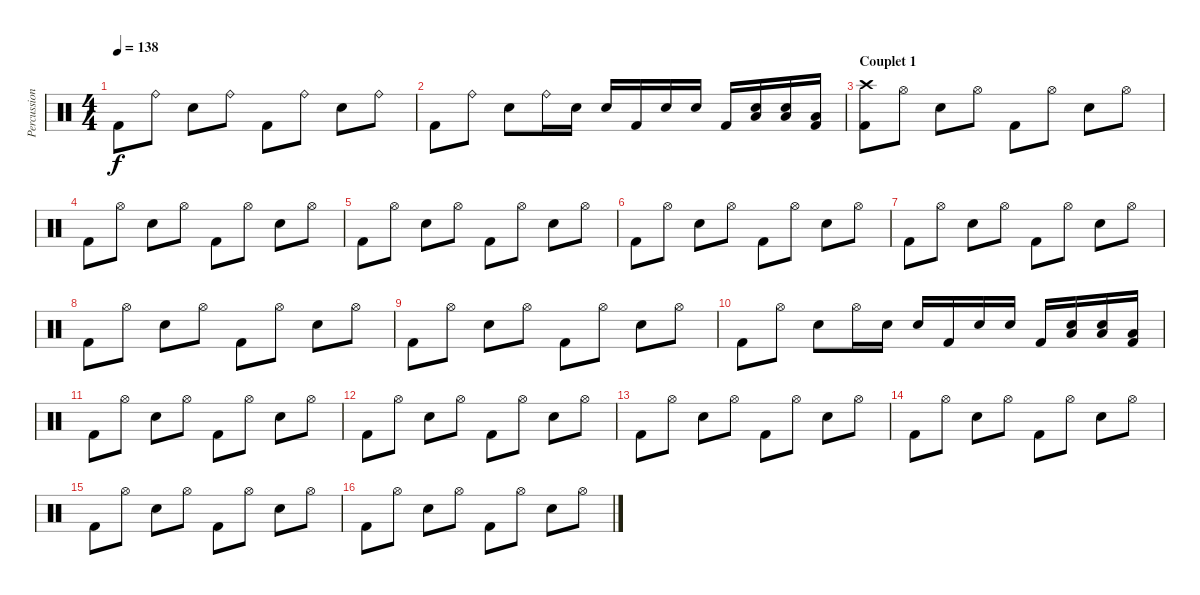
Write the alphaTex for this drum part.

\track ("Percussions" "Percussion") {instrument percussion}
\staff {score}
\articulation defaults
\ts (4 4)
\tempo 138
\clef neutral
\ks c "Kick (hit) 2".8{dy f} "Ride (bell)".8 "Snare (hit) 2".8 "Ride (bell)".8 "Kick (hit) 2".8 "Ride (bell)".8 "Snare (hit) 2".8 "Ride (bell)".8
|
"Kick (hit) 2".8 "Ride (bell)".8 "Snare (hit) 2".8 "Ride (bell)".16 "Snare (hit) 2".16 "Snare (hit) 2".16 "Kick (hit) 2".16 "Snare (hit) 2".16 "Snare (hit) 2".16 "Kick (hit) 2".16 ("Snare (hit) 2" "Low Tom (hit)").16 ("Snare (hit) 2" "Low Floor Tom (hit)").16 ("Low Floor Tom (hit)" "Kick (hit) 2").16 |
\section ("" "Couplet 1")
("Crash high (hit)" "Kick (hit) 2").8 "Hi-Hat (open)".8 "Snare (hit) 2".8 "Hi-Hat (open)".8 "Kick (hit) 2".8 "Hi-Hat (open)".8 "Snare (hit) 2".8 "Hi-Hat (open)".8 |
"Kick (hit) 2".8 "Hi-Hat (open)".8 "Snare (hit) 2".8 "Hi-Hat (open)".8 "Kick (hit) 2".8 "Hi-Hat (open)".8 "Snare (hit) 2".8 "Hi-Hat (open)".8 |
"Kick (hit) 2".8 "Hi-Hat (open)".8 "Snare (hit) 2".8 "Hi-Hat (open)".8 "Kick (hit) 2".8 "Hi-Hat (open)".8 "Snare (hit) 2".8 "Hi-Hat (open)".8 |
"Kick (hit) 2".8 "Hi-Hat (open)".8 "Snare (hit) 2".8 "Hi-Hat (open)".8 "Kick (hit) 2".8 "Hi-Hat (open)".8 "Snare (hit) 2".8 "Hi-Hat (open)".8 |
"Kick (hit) 2".8 "Hi-Hat (open)".8 "Snare (hit) 2".8 "Hi-Hat (open)".8 "Kick (hit) 2".8 "Hi-Hat (open)".8 "Snare (hit) 2".8 "Hi-Hat (open)".8 |
"Kick (hit) 2".8 "Hi-Hat (open)".8 "Snare (hit) 2".8 "Hi-Hat (open)".8 "Kick (hit) 2".8 "Hi-Hat (open)".8 "Snare (hit) 2".8 "Hi-Hat (open)".8 |
"Kick (hit) 2".8 "Hi-Hat (open)".8 "Snare (hit) 2".8 "Hi-Hat (open)".8 "Kick (hit) 2".8 "Hi-Hat (open)".8 "Snare (hit) 2".8 "Hi-Hat (open)".8 |
"Kick (hit) 2".8 "Hi-Hat (open)".8 "Snare (hit) 2".8 "Hi-Hat (open)".16 "Snare (hit) 2".16 "Snare (hit) 2".16 "Kick (hit) 2".16 "Snare (hit) 2".16 "Snare (hit) 2".16 "Kick (hit) 2".16 ("Snare (hit) 2" "Low Tom (hit)").16 ("Snare (hit) 2" "Low Floor Tom (hit)").16 ("Low Floor Tom (hit)" "Kick (hit) 2").16 |
"Kick (hit) 2".8 "Hi-Hat (open)".8 "Snare (hit) 2".8 "Hi-Hat (open)".8 "Kick (hit) 2".8 "Hi-Hat (open)".8 "Snare (hit) 2".8 "Hi-Hat (open)".8 |
"Kick (hit) 2".8 "Hi-Hat (open)".8 "Snare (hit) 2".8 "Hi-Hat (open)".8 "Kick (hit) 2".8 "Hi-Hat (open)".8 "Snare (hit) 2".8 "Hi-Hat (open)".8 |
"Kick (hit) 2".8 "Hi-Hat (open)".8 "Snare (hit) 2".8 "Hi-Hat (open)".8 "Kick (hit) 2".8 "Hi-Hat (open)".8 "Snare (hit) 2".8 "Hi-Hat (open)".8 |
"Kick (hit) 2".8 "Hi-Hat (open)".8 "Snare (hit) 2".8 "Hi-Hat (open)".8 "Kick (hit) 2".8 "Hi-Hat (open)".8 "Snare (hit) 2".8 "Hi-Hat (open)".8 |
"Kick (hit) 2".8 "Hi-Hat (open)".8 "Snare (hit) 2".8 "Hi-Hat (open)".8 "Kick (hit) 2".8 "Hi-Hat (open)".8 "Snare (hit) 2".8 "Hi-Hat (open)".8 |
"Kick (hit) 2".8 "Hi-Hat (open)".8 "Snare (hit) 2".8 "Hi-Hat (open)".8 "Kick (hit) 2".8 "Hi-Hat (open)".8 "Snare (hit) 2".8 "Hi-Hat (open)".8
